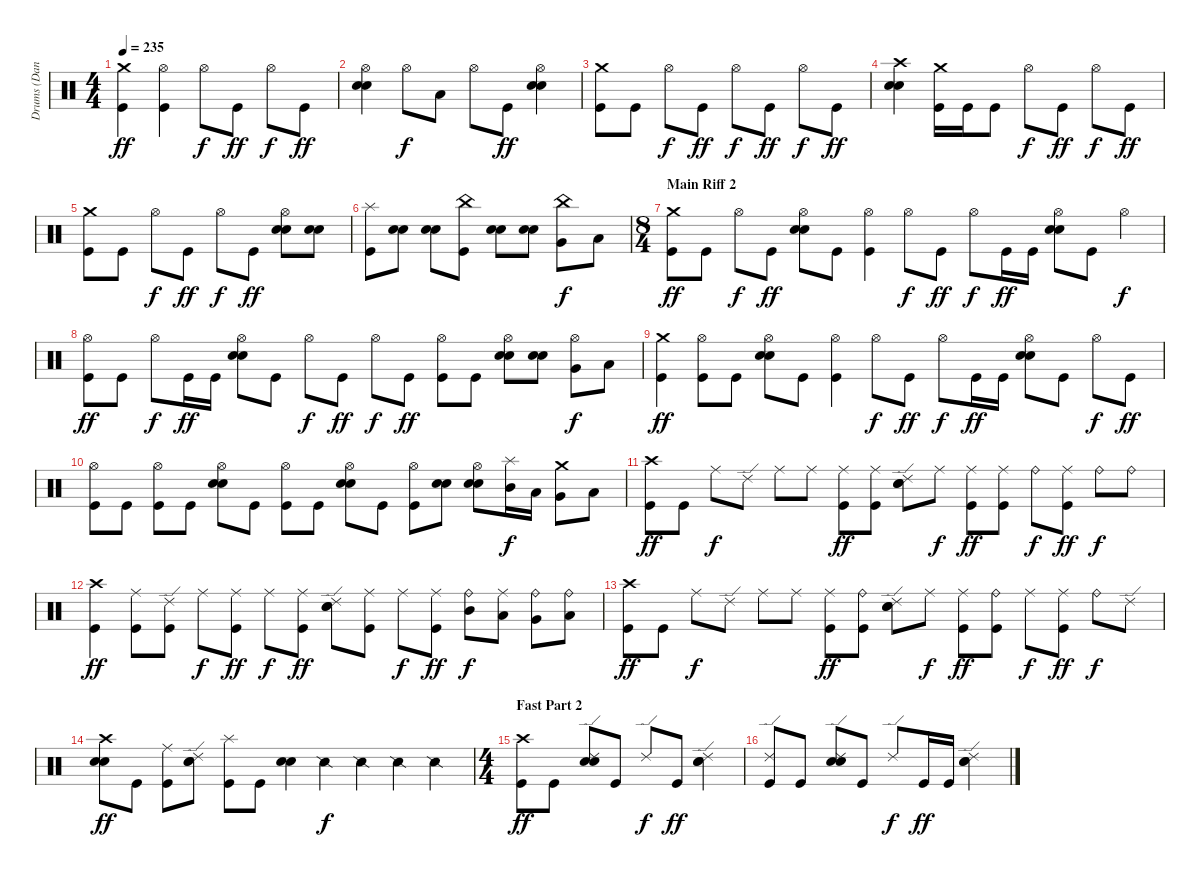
\track ("Drums (Dan)" "Drums (Dan") {instrument percussion}
\staff {score}
\articulation defaults
\ts (4 4)
\tempo 235
\clef neutral
\ks c
("Kick (hit)" "Crash medium (hit)").4{dy ff} ("Kick (hit)" "Hi-Hat (open)").4 "Hi-Hat (open)".8{dy f} "Kick (hit)".8{dy ff} "Hi-Hat (open)".8{dy f} "Kick (hit)".8{dy ff} |
("Electric Snare (hit)" "Electric Snare (hit)" "Hi-Hat (open)").4 "Hi-Hat (open)".8{dy f} "Low Floor Tom (hit)".8 "Hi-Hat (open)".8 "Kick (hit)".8{dy ff} ("Electric Snare (hit)" "Electric Snare (hit)" "Hi-Hat (open)").4 |
("Kick (hit)" "Crash medium (hit)").8 "Kick (hit)".8 "Hi-Hat (open)".8{dy f} "Kick (hit)".8{dy ff} "Hi-Hat (open)".8{dy f} "Kick (hit)".8{dy ff} "Hi-Hat (open)".8{dy f} "Kick (hit)".8{dy ff} |
("Electric Snare (hit)" "Electric Snare (hit)" "Crash high (hit)").4 ("Kick (hit)" "Crash medium (hit)").16 "Kick (hit)".16 "Kick (hit)".8 "Hi-Hat (open)".8{dy f} "Kick (hit)".8{dy ff} "Hi-Hat (open)".8{dy f} "Kick (hit)".8{dy ff} |
("Kick (hit)" "Crash medium (hit)").8 "Kick (hit)".8 "Hi-Hat (open)".8{dy f} "Kick (hit)".8{dy ff} "Hi-Hat (open)".8{dy f} "Kick (hit)".8{dy ff} ("Electric Snare (hit)" "Electric Snare (hit)" "Hi-Hat (open)").8 ("Electric Snare (hit)" "Electric Snare (hit)").8 |
("Kick (hit)" "Splash (hit)").8 ("Electric Snare (hit)" "Electric Snare (hit)").8 ("Electric Snare (hit)" "Electric Snare (hit)").8 ("Kick (hit)" "China (hit)").8 ("Electric Snare (hit)" "Electric Snare (hit)").8 ("Electric Snare (hit)" "Electric Snare (hit)").8 ("Very Low Tom (hit)" "China (hit)").8{dy f} "Low Floor Tom (hit)".8 |
\ts (8 4)
\section ("" "Main Riff 2")
("Kick (hit)" "Crash medium (hit)").8{dy ff} "Kick (hit)".8 "Hi-Hat (open)".8{dy f} "Kick (hit)".8{dy ff} ("Electric Snare (hit)" "Electric Snare (hit)" "Hi-Hat (open)").8 "Kick (hit)".8 ("Kick (hit)" "Hi-Hat (open)").4 "Hi-Hat (open)".8{dy f} "Kick (hit)".8{dy ff} "Hi-Hat (open)".8{dy f} "Kick (hit)".16{dy ff} "Kick (hit)".16 ("Electric Snare (hit)" "Electric Snare (hit)" "Hi-Hat (open)").8 "Kick (hit)".8 "Hi-Hat (open)".4{dy f} |
("Kick (hit)" "Hi-Hat (open)").8{dy ff} "Kick (hit)".8 "Hi-Hat (open)".8{dy f} "Kick (hit)".16{dy ff} "Kick (hit)".16 ("Electric Snare (hit)" "Electric Snare (hit)" "Hi-Hat (open)").8 "Kick (hit)".8 "Hi-Hat (open)".8{dy f} "Kick (hit)".8{dy ff} "Hi-Hat (open)".8{dy f} "Kick (hit)".8{dy ff} ("Kick (hit)" "Hi-Hat (open)").8 "Kick (hit)".8 ("Electric Snare (hit)" "Electric Snare (hit)" "Hi-Hat (open)").8 ("Electric Snare (hit)" "Electric Snare (hit)").8 ("Very Low Tom (hit)" "Hi-Hat (open)").8{dy f} "Low Floor Tom (hit)".8 |
("Kick (hit)" "Crash medium (hit)").4{dy ff} ("Kick (hit)" "Hi-Hat (open)").8 "Kick (hit)".8 ("Electric Snare (hit)" "Electric Snare (hit)" "Hi-Hat (open)").8 "Kick (hit)".8 ("Kick (hit)" "Hi-Hat (open)").4 "Hi-Hat (open)".8{dy f} "Kick (hit)".8{dy ff} "Hi-Hat (open)".8{dy f} "Kick (hit)".16{dy ff} "Kick (hit)".16 ("Electric Snare (hit)" "Electric Snare (hit)" "Hi-Hat (open)").8 "Kick (hit)".8 "Hi-Hat (open)".8{dy f} "Kick (hit)".8{dy ff} |
("Kick (hit)" "Hi-Hat (open)").8 "Kick (hit)".8 ("Kick (hit)" "Hi-Hat (open)").8 "Kick (hit)".8 ("Electric Snare (hit)" "Electric Snare (hit)" "Hi-Hat (open)").8 "Kick (hit)".8 ("Kick (hit)" "Hi-Hat (open)").8 "Kick (hit)".8 ("Electric Snare (hit)" "Electric Snare (hit)" "Hi-Hat (open)").8 "Kick (hit)".8 ("Kick (hit)" "Hi-Hat (open)").8 ("Electric Snare (hit)" "Electric Snare (hit)").8 ("Electric Snare (hit)" "Electric Snare (hit)" "Hi-Hat (open)").8 ("Mid Tom (hit)" "Splash (hit)").16{dy f} "Low Tom (hit)".16 ("Very Low Tom (hit)" "Crash medium (hit)").8 "Low Floor Tom (hit)".8 |
("Kick (hit)" "Crash high (hit)").8{dy ff} "Kick (hit)".8 "Ride (middle)".8{dy f} "Ride (edge) 2".8 "Ride (middle)".8 "Ride (middle)".8 ("Kick (hit)" "Ride (middle)").8{dy ff} ("Kick (hit)" "Ride (middle)").8 ("Electric Snare (hit)" "Electric Snare (hit)" "Ride (edge) 2").8 "Ride (middle)".8{dy f} ("Kick (hit)" "Ride (middle)").8{dy ff} ("Kick (hit)" "Ride (middle)").8 "Ride (bell)".8{dy f} ("Kick (hit)" "Ride (middle)").8{dy ff} "Ride (bell)".8{dy f} "Ride (bell)".8 |
("Kick (hit)" "Crash high (hit)").4{dy ff} ("Kick (hit)" "Ride (middle)").8 ("Kick (hit)" "Ride (edge) 2").8 "Ride (middle)".8{dy f} ("Kick (hit)" "Ride (middle)").8{dy ff} "Ride (middle)".8{dy f} ("Kick (hit)" "Ride (middle)").8{dy ff} ("Electric Snare (hit)" "Electric Snare (hit)" "Ride (edge) 2").8 ("Kick (hit)" "Ride (middle)").8 "Ride (middle)".8{dy f} ("Kick (hit)" "Ride (middle)").8{dy ff} ("Mid Tom (hit)" "Ride (bell)").8{dy f} ("Low Tom (hit)" "Ride (middle)").8 ("Very Low Tom (hit)" "Ride (bell)").8 ("Low Floor Tom (hit)" "Ride (bell)").8 |
("Kick (hit)" "Crash high (hit)").8{dy ff} "Kick (hit)".8 "Ride (middle)".8{dy f} "Ride (edge) 2".8 "Ride (middle)".8 "Ride (middle)".8 ("Kick (hit)" "Ride (middle)").8{dy ff} ("Kick (hit)" "Ride (bell)").8 ("Electric Snare (hit)" "Electric Snare (hit)" "Ride (edge) 2").8 "Ride (middle)".8{dy f} ("Kick (hit)" "Ride (middle)").8{dy ff} ("Kick (hit)" "Ride (bell)").8 "Ride (middle)".8{dy f} ("Kick (hit)" "Ride (middle)").8{dy ff} "Ride (bell)".8{dy f} "Ride (edge) 2".8 |
("Electric Snare (hit)" "Electric Snare (hit)" "Crash high (hit)").8{dy ff} "Kick (hit)".8 ("Kick (hit)" "Ride (middle)").8 ("Electric Snare (hit)" "Electric Snare (hit)" "Ride (edge) 2").8 ("Kick (hit)" "Splash (hit)").8 "Kick (hit)".8 ("Electric Snare (hit)" "Electric Snare (hit)").4 "Snare (side stick) 2".4{dy f} "Snare (side stick) 2".4 "Snare (side stick) 2".4 "Snare (side stick) 2".4 |
\ts (4 4)
\section ("" "Fast Part 2")
("Kick (hit)" "Crash high (hit)").8{dy ff} "Kick (hit)".8 ("Electric Snare (hit)" "Electric Snare (hit)" "Ride (edge) 2").8 "Kick (hit)".8 "Ride (edge) 2".8{dy f} "Kick (hit)".8{dy ff} ("Electric Snare (hit)" "Electric Snare (hit)" "Ride (edge) 2").4 |
("Kick (hit)" "Ride (edge) 2").8 "Kick (hit)".8 ("Electric Snare (hit)" "Electric Snare (hit)" "Ride (edge) 2").8 "Kick (hit)".8 "Ride (edge) 2".8{dy f} "Kick (hit)".16{dy ff} "Kick (hit)".16 ("Electric Snare (hit)" "Electric Snare (hit)" "Ride (edge) 2").4
